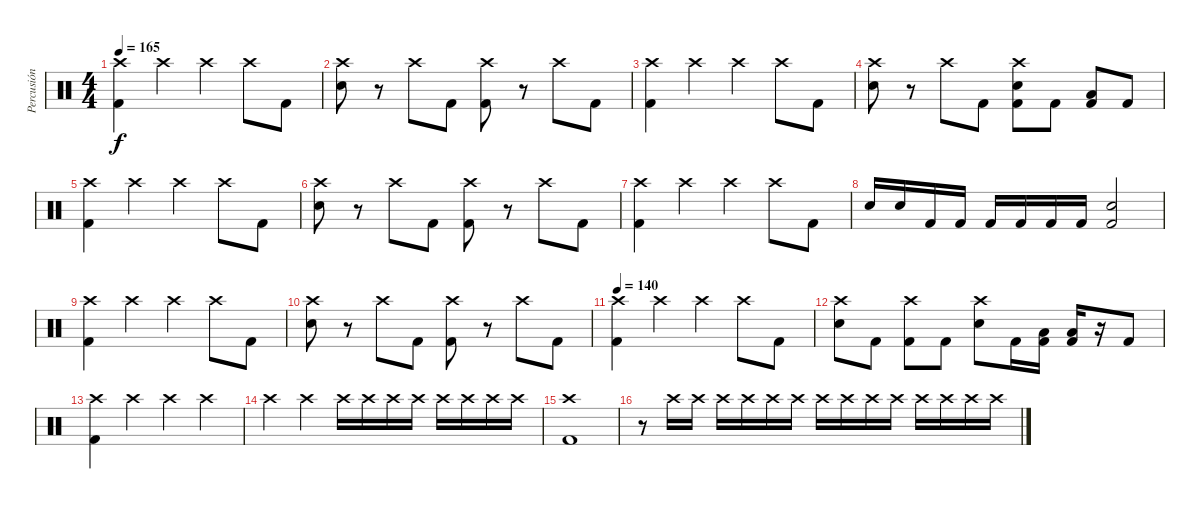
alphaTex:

\track ("Percusión" "Percusión") {instrument percussion}
\staff {score}
\articulation defaults
\ts (4 4)
\tempo 165
\clef neutral
\ks c
("Crash high (hit)" "Kick (hit) 2").4{dy f} "Crash high (hit)".4 "Crash high (hit)".4 "Crash high (hit)".8 "Kick (hit) 2".8 |
("Crash high (hit)" "Electric Snare (hit)").8 r.8 "Crash high (hit)".8 "Kick (hit) 2".8 ("Crash high (hit)" "Kick (hit) 2").8 r.8 "Crash high (hit)".8 "Kick (hit) 2".8 |
("Crash high (hit)" "Kick (hit) 2").4 "Crash high (hit)".4 "Crash high (hit)".4 "Crash high (hit)".8 "Kick (hit) 2".8 |
("Crash high (hit)" "Electric Snare (hit)").8 r.8 "Crash high (hit)".8 "Kick (hit) 2".8 ("Crash high (hit)" "Electric Snare (hit)" "Kick (hit) 2").8 "Kick (hit) 2".8 ("Low Tom (hit)" "Kick (hit) 2").8 "Kick (hit) 2".8 |
("Crash high (hit)" "Kick (hit) 2").4 "Crash high (hit)".4 "Crash high (hit)".4 "Crash high (hit)".8 "Kick (hit) 2".8 |
("Crash high (hit)" "Electric Snare (hit)").8 r.8 "Crash high (hit)".8 "Kick (hit) 2".8 ("Crash high (hit)" "Kick (hit) 2").8 r.8 "Crash high (hit)".8 "Kick (hit) 2".8 |
("Crash high (hit)" "Kick (hit) 2").4 "Crash high (hit)".4 "Crash high (hit)".4 "Crash high (hit)".8 "Kick (hit) 2".8 |
"Electric Snare (hit)".16 "Electric Snare (hit)".16 "Kick (hit) 2".16 "Kick (hit) 2".16 "Kick (hit) 2".16 "Kick (hit) 2".16 "Kick (hit) 2".16 "Kick (hit) 2".16 ("Electric Snare (hit)" "Kick (hit) 2").2 |
("Crash high (hit)" "Kick (hit) 2").4 "Crash high (hit)".4 "Crash high (hit)".4 "Crash high (hit)".8 "Kick (hit) 2".8 |
("Crash high (hit)" "Electric Snare (hit)").8 r.8 "Crash high (hit)".8 "Kick (hit) 2".8 ("Crash high (hit)" "Kick (hit) 2").8 r.8 "Crash high (hit)".8 "Kick (hit) 2".8 |
\tempo 140
("Crash high (hit)" "Kick (hit) 2").4 "Crash high (hit)".4 "Crash high (hit)".4 "Crash high (hit)".8 "Kick (hit) 2".8 |
("Crash high (hit)" "Electric Snare (hit)").8 "Kick (hit) 2".8 ("Crash high (hit)" "Kick (hit) 2").8 "Kick (hit) 2".8 ("Crash high (hit)" "Electric Snare (hit)").8 "Kick (hit) 2".16 ("Low Tom (hit)" "Kick (hit) 2").16 ("Low Tom (hit)" "Kick (hit) 2").16 r.16 "Kick (hit) 2".8 |
("Crash high (hit)" "Kick (hit) 2").4 "Crash high (hit)".4 "Crash high (hit)".4 "Crash high (hit)".4 |
"Crash high (hit)".4 "Crash high (hit)".4 "Crash high (hit)".16 "Crash high (hit)".16 "Crash high (hit)".16 "Crash high (hit)".16 "Crash high (hit)".16 "Crash high (hit)".16 "Crash high (hit)".16 "Crash high (hit)".16 |
("Crash high (hit)" "Kick (hit) 2").1 |
r.8 "Crash high (hit)".16 "Crash high (hit)".16 "Crash high (hit)".16 "Crash high (hit)".16 "Crash high (hit)".16 "Crash high (hit)".16 "Crash high (hit)".16 "Crash high (hit)".16 "Crash high (hit)".16 "Crash high (hit)".16 "Crash high (hit)".16 "Crash high (hit)".16 "Crash high (hit)".16 "Crash high (hit)".16
